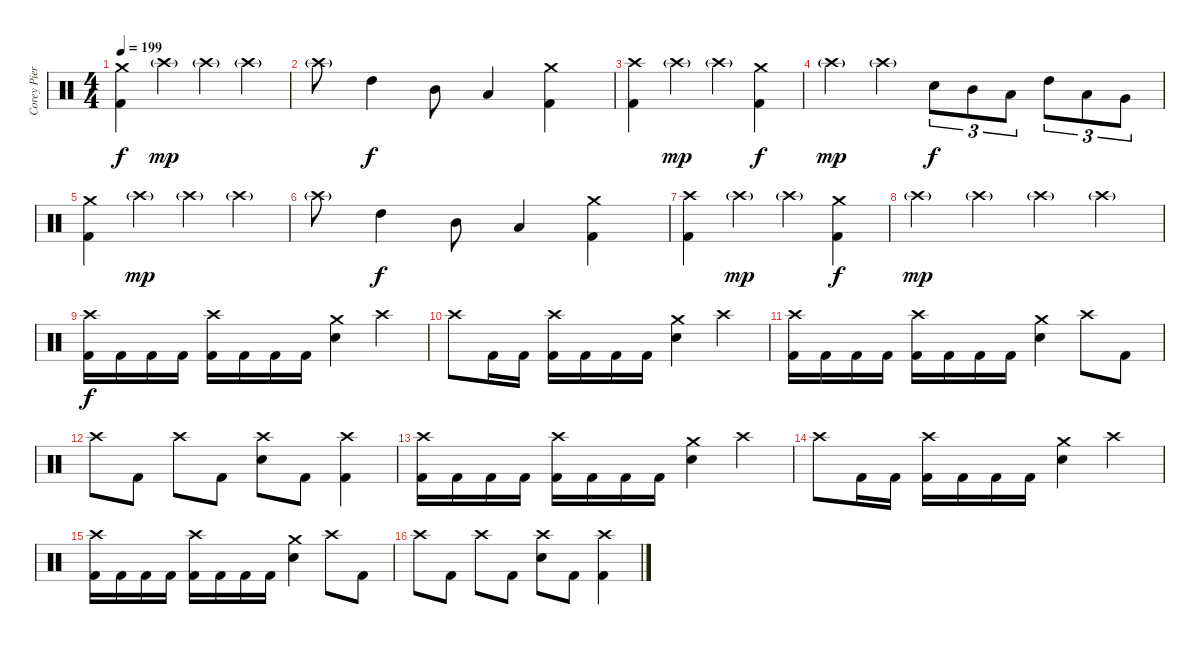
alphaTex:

\track ("Corey Pierce (Drums)" "Corey Pier") {instrument percussion}
\staff {score}
\articulation defaults
\ts (4 4)
\tempo 199
\clef neutral
\ks c
("Crash medium (hit)" "Kick (hit) 2").4{dy f} "Crash high (hit)"{g}.4{dy mp} "Crash high (hit)"{g}.4 "Crash high (hit)"{g}.4 |
"Crash high (hit)"{g}.8 "High Tom (hit)".4{dy f} "Mid Tom (hit)".8 "Low Tom (hit)".4 ("Crash medium (hit)" "Kick (hit) 2").4 |
("Crash high (hit)" "Kick (hit) 2").4 "Crash high (hit)"{g}.4{dy mp} "Crash high (hit)"{g}.4 ("Crash medium (hit)" "Kick (hit) 2").4{dy f} |
"Crash high (hit)"{g}.4{dy mp} "Crash high (hit)"{g}.4 "Snare (hit) 2".8{tu (3 2) dy f} "Mid Tom (hit)".8{tu (3 2)} "Low Tom (hit)".8{tu (3 2)} "High Tom (hit)".8{tu (3 2)} "Low Tom (hit)".8{tu (3 2)} "Very Low Tom (hit)".8{tu (3 2)} |
("Crash medium (hit)" "Kick (hit) 2").4 "Crash high (hit)"{g}.4{dy mp} "Crash high (hit)"{g}.4 "Crash high (hit)"{g}.4 |
"Crash high (hit)"{g}.8 "High Tom (hit)".4{dy f} "Mid Tom (hit)".8 "Low Tom (hit)".4 ("Crash medium (hit)" "Kick (hit) 2").4 |
("Crash high (hit)" "Kick (hit) 2").4 "Crash high (hit)"{g}.4{dy mp} "Crash high (hit)"{g}.4 ("Crash medium (hit)" "Kick (hit) 2").4{dy f} |
"Crash high (hit)"{g}.4{dy mp} "Crash high (hit)"{g}.4 "Crash high (hit)"{g}.4 "Crash high (hit)"{g}.4 |
("Crash high (hit)" "Kick (hit) 2").16{dy f} "Kick (hit) 2".16 "Kick (hit) 2".16 "Kick (hit) 2".16 ("Crash high (hit)" "Kick (hit) 2").16 "Kick (hit) 2".16 "Kick (hit) 2".16 "Kick (hit) 2".16 ("Crash medium (hit)" "Snare (hit) 2").4 "Crash high (hit)".4 |
"Crash high (hit)".8 "Kick (hit) 2".16 "Kick (hit) 2".16 ("Crash high (hit)" "Kick (hit) 2").16 "Kick (hit) 2".16 "Kick (hit) 2".16 "Kick (hit) 2".16 ("Crash medium (hit)" "Snare (hit) 2").4 "Crash high (hit)".4 |
("Crash high (hit)" "Kick (hit) 2").16 "Kick (hit) 2".16 "Kick (hit) 2".16 "Kick (hit) 2".16 ("Crash high (hit)" "Kick (hit) 2").16 "Kick (hit) 2".16 "Kick (hit) 2".16 "Kick (hit) 2".16 ("Crash medium (hit)" "Snare (hit) 2").4 "Crash high (hit)".8 "Kick (hit) 2".8 |
"Crash high (hit)".8 "Kick (hit) 2".8 "Crash high (hit)".8 "Kick (hit) 2".8 ("Crash high (hit)" "Snare (hit) 2").8 "Kick (hit) 2".8 ("Crash high (hit)" "Kick (hit) 2").4 |
("Crash high (hit)" "Kick (hit) 2").16 "Kick (hit) 2".16 "Kick (hit) 2".16 "Kick (hit) 2".16 ("Crash high (hit)" "Kick (hit) 2").16 "Kick (hit) 2".16 "Kick (hit) 2".16 "Kick (hit) 2".16 ("Crash medium (hit)" "Snare (hit) 2").4 "Crash high (hit)".4 |
"Crash high (hit)".8 "Kick (hit) 2".16 "Kick (hit) 2".16 ("Crash high (hit)" "Kick (hit) 2").16 "Kick (hit) 2".16 "Kick (hit) 2".16 "Kick (hit) 2".16 ("Crash medium (hit)" "Snare (hit) 2").4 "Crash high (hit)".4 |
("Crash high (hit)" "Kick (hit) 2").16 "Kick (hit) 2".16 "Kick (hit) 2".16 "Kick (hit) 2".16 ("Crash high (hit)" "Kick (hit) 2").16 "Kick (hit) 2".16 "Kick (hit) 2".16 "Kick (hit) 2".16 ("Crash medium (hit)" "Snare (hit) 2").4 "Crash high (hit)".8 "Kick (hit) 2".8 |
"Crash high (hit)".8 "Kick (hit) 2".8 "Crash high (hit)".8 "Kick (hit) 2".8 ("Crash high (hit)" "Snare (hit) 2").8 "Kick (hit) 2".8 ("Crash high (hit)" "Kick (hit) 2").4
